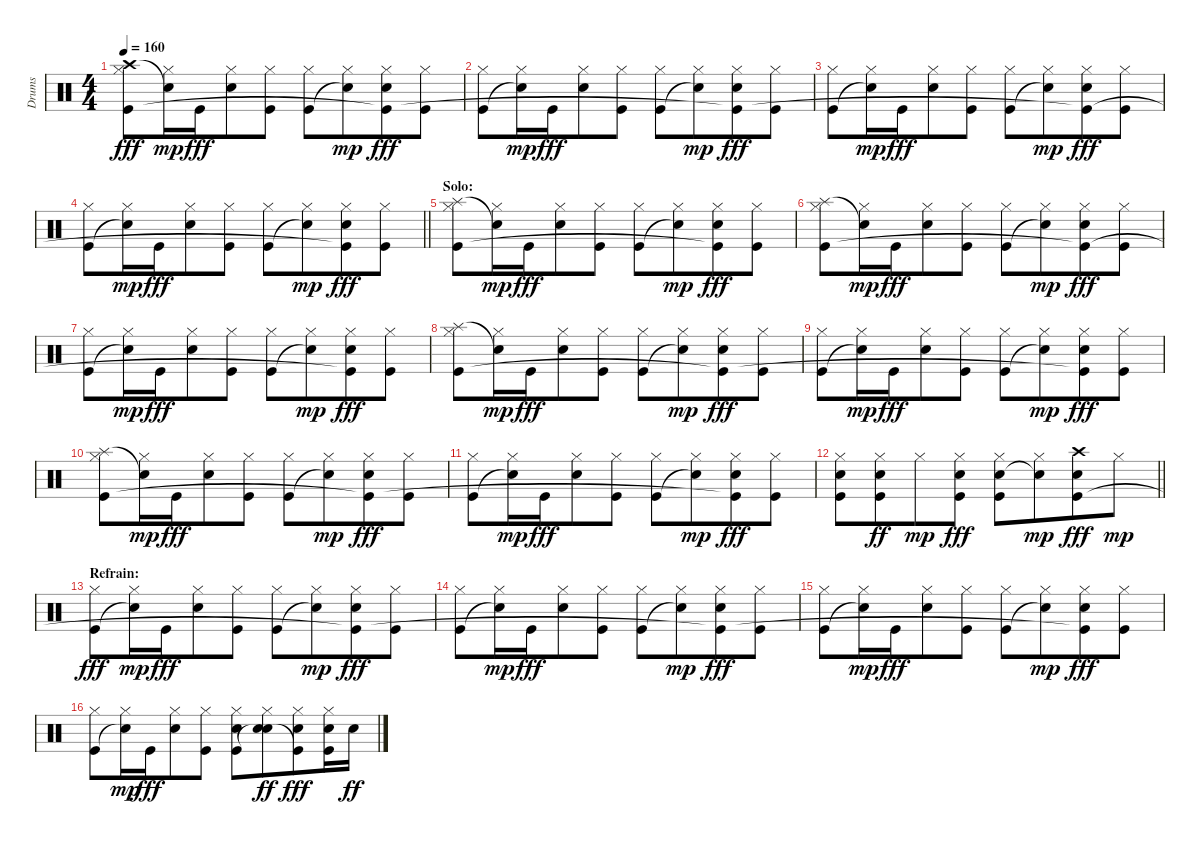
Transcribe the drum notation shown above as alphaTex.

\track ("Drums" "Drums") {instrument percussion}
\staff {score}
\articulation defaults
\ts (4 4)
\tempo 160
\clef neutral
\ks c
("Hi-Hat (closed)" "Crash high (hit)" "Kick (hit)").8{dy fff} ("Hi-Hat (closed)" "Snare (hit)"{t}).16{dy mp} "Kick (hit)".16{dy fff beam merge} ("Hi-Hat (closed)" "Snare (hit) 2").8 ("Hi-Hat (closed)" "Kick (hit)").8 ("Hi-Hat (closed)" "Kick (hit)").8 ("Hi-Hat (closed)" "Snare (hit)"{t}).8{dy mp beam merge} ("Hi-Hat (closed)" "Snare (hit) 2" "Kick (hit)"{t}).8{dy fff} ("Hi-Hat (closed)" "Kick (hit)").8 |
("Hi-Hat (closed)" "Kick (hit)").8 ("Hi-Hat (closed)" "Snare (hit)"{t}).16{dy mp} "Kick (hit)".16{dy fff beam merge} ("Hi-Hat (closed)" "Snare (hit) 2").8 ("Hi-Hat (closed)" "Kick (hit)").8 ("Hi-Hat (closed)" "Kick (hit)").8 ("Hi-Hat (closed)" "Snare (hit)"{t}).8{dy mp beam merge} ("Hi-Hat (closed)" "Snare (hit) 2" "Kick (hit)"{t}).8{dy fff} ("Hi-Hat (closed)" "Kick (hit)").8 |
("Hi-Hat (closed)" "Kick (hit)").8 ("Hi-Hat (closed)" "Snare (hit)"{t}).16{dy mp} "Kick (hit)".16{dy fff beam merge} ("Hi-Hat (closed)" "Snare (hit) 2").8 ("Hi-Hat (closed)" "Kick (hit)").8 ("Hi-Hat (closed)" "Kick (hit)").8 ("Hi-Hat (closed)" "Snare (hit)"{t}).8{dy mp beam merge} ("Hi-Hat (closed)" "Snare (hit) 2" "Kick (hit)"{t}).8{dy fff} ("Hi-Hat (closed)" "Kick (hit)").8 |
\barLineRight lightlight
("Hi-Hat (closed)" "Kick (hit)").8 ("Hi-Hat (closed)" "Snare (hit)"{t}).16{dy mp} "Kick (hit)".16{dy fff beam merge} ("Hi-Hat (closed)" "Snare (hit) 2").8 ("Hi-Hat (closed)" "Kick (hit)").8 ("Hi-Hat (closed)" "Kick (hit)").8 ("Hi-Hat (closed)" "Snare (hit)"{t}).8{dy mp beam merge} ("Hi-Hat (closed)" "Snare (hit) 2" "Kick (hit)"{t}).8{dy fff} ("Hi-Hat (closed)" "Kick (hit)").8 |
\section ("" "Solo:")
("Hi-Hat (closed)" "Splash (hit)" "Kick (hit)").8 ("Hi-Hat (closed)" "Snare (hit)"{t}).16{dy mp} "Kick (hit)".16{dy fff beam merge} ("Hi-Hat (closed)" "Snare (hit) 2").8 ("Hi-Hat (closed)" "Kick (hit)").8 ("Hi-Hat (closed)" "Kick (hit)").8 ("Hi-Hat (closed)" "Snare (hit)"{t}).8{dy mp beam merge} ("Hi-Hat (closed)" "Snare (hit) 2" "Kick (hit)"{t}).8{dy fff} ("Hi-Hat (closed)" "Kick (hit)").8 |
("Hi-Hat (closed)" "Splash (hit)" "Kick (hit)").8 ("Hi-Hat (closed)" "Snare (hit)"{t}).16{dy mp} "Kick (hit)".16{dy fff beam merge} ("Hi-Hat (closed)" "Snare (hit) 2").8 ("Hi-Hat (closed)" "Kick (hit)").8 ("Hi-Hat (closed)" "Kick (hit)").8 ("Hi-Hat (closed)" "Snare (hit)"{t}).8{dy mp beam merge} ("Hi-Hat (closed)" "Snare (hit) 2" "Kick (hit)"{t}).8{dy fff} ("Hi-Hat (closed)" "Kick (hit)").8 |
("Hi-Hat (closed)" "Kick (hit)").8 ("Hi-Hat (closed)" "Snare (hit)"{t}).16{dy mp} "Kick (hit)".16{dy fff beam merge} ("Hi-Hat (closed)" "Snare (hit) 2").8 ("Hi-Hat (closed)" "Kick (hit)").8 ("Hi-Hat (closed)" "Kick (hit)").8 ("Hi-Hat (closed)" "Snare (hit)"{t}).8{dy mp beam merge} ("Hi-Hat (closed)" "Snare (hit) 2" "Kick (hit)"{t}).8{dy fff} ("Hi-Hat (closed)" "Kick (hit)").8 |
("Hi-Hat (closed)" "Splash (hit)" "Kick (hit)").8 ("Hi-Hat (closed)" "Snare (hit)"{t}).16{dy mp} "Kick (hit)".16{dy fff beam merge} ("Hi-Hat (closed)" "Snare (hit) 2").8 ("Hi-Hat (closed)" "Kick (hit)").8 ("Hi-Hat (closed)" "Kick (hit)").8 ("Hi-Hat (closed)" "Snare (hit)"{t}).8{dy mp beam merge} ("Hi-Hat (closed)" "Snare (hit) 2" "Kick (hit)"{t}).8{dy fff} ("Hi-Hat (closed)" "Kick (hit)").8 |
("Hi-Hat (closed)" "Kick (hit)").8 ("Hi-Hat (closed)" "Snare (hit)"{t}).16{dy mp} "Kick (hit)".16{dy fff beam merge} ("Hi-Hat (closed)" "Snare (hit) 2").8 ("Hi-Hat (closed)" "Kick (hit)").8 ("Hi-Hat (closed)" "Kick (hit)").8 ("Hi-Hat (closed)" "Snare (hit)"{t}).8{dy mp beam merge} ("Hi-Hat (closed)" "Snare (hit) 2" "Kick (hit)"{t}).8{dy fff} ("Hi-Hat (closed)" "Kick (hit)").8 |
("Hi-Hat (closed)" "Splash (hit)" "Kick (hit)").8 ("Hi-Hat (closed)" "Snare (hit)"{t}).16{dy mp} "Kick (hit)".16{dy fff beam merge} ("Hi-Hat (closed)" "Snare (hit) 2").8 ("Hi-Hat (closed)" "Kick (hit)").8 ("Hi-Hat (closed)" "Kick (hit)").8 ("Hi-Hat (closed)" "Snare (hit)"{t}).8{dy mp beam merge} ("Hi-Hat (closed)" "Snare (hit) 2" "Kick (hit)"{t}).8{dy fff} ("Hi-Hat (closed)" "Kick (hit)").8 |
("Hi-Hat (closed)" "Kick (hit)").8 ("Hi-Hat (closed)" "Snare (hit)"{t}).16{dy mp} "Kick (hit)".16{dy fff beam merge} ("Hi-Hat (closed)" "Snare (hit) 2").8 ("Hi-Hat (closed)" "Kick (hit)").8 ("Hi-Hat (closed)" "Kick (hit)").8 ("Hi-Hat (closed)" "Snare (hit)"{t}).8{dy mp beam merge} ("Hi-Hat (closed)" "Snare (hit) 2" "Kick (hit)"{t}).8{dy fff} ("Hi-Hat (closed)" "Kick (hit)").8 |
\barLineRight lightlight
("Hi-Hat (closed)" "Snare (hit) 2" "Kick (hit)").8 ("Hi-Hat (closed)" "Snare (hit) 2" "Kick (hit)").8{dy ff beam merge} "Hi-Hat (closed)".8{dy mp} ("Hi-Hat (closed)" "Snare (hit) 2" "Kick (hit)").8{dy fff} ("Hi-Hat (closed)" "Snare (hit) 2" "Kick (hit)").8 ("Hi-Hat (closed)" "Snare (hit)"{t}).8{dy mp beam merge} ("Crash high (hit)" "Snare (hit) 2" "Kick (hit)").8{dy fff} "Hi-Hat (closed)".8{dy mp} |
\section ("" "Refrain:")
("Hi-Hat (closed)" "Kick (hit)").8{dy fff} ("Hi-Hat (closed)" "Snare (hit)"{t}).16{dy mp} "Kick (hit)".16{dy fff beam merge} ("Hi-Hat (closed)" "Snare (hit) 2").8 ("Hi-Hat (closed)" "Kick (hit)").8 ("Hi-Hat (closed)" "Kick (hit)").8 ("Hi-Hat (closed)" "Snare (hit)"{t}).8{dy mp beam merge} ("Hi-Hat (closed)" "Snare (hit) 2" "Kick (hit)"{t}).8{dy fff} ("Hi-Hat (closed)" "Kick (hit)").8 |
("Hi-Hat (closed)" "Kick (hit)").8 ("Hi-Hat (closed)" "Snare (hit)"{t}).16{dy mp} "Kick (hit)".16{dy fff beam merge} ("Hi-Hat (closed)" "Snare (hit) 2").8 ("Hi-Hat (closed)" "Kick (hit)").8 ("Hi-Hat (closed)" "Kick (hit)").8 ("Hi-Hat (closed)" "Snare (hit)"{t}).8{dy mp beam merge} ("Hi-Hat (closed)" "Snare (hit) 2" "Kick (hit)"{t}).8{dy fff} ("Hi-Hat (closed)" "Kick (hit)").8 |
("Hi-Hat (closed)" "Kick (hit)").8 ("Hi-Hat (closed)" "Snare (hit)"{t}).16{dy mp} "Kick (hit)".16{dy fff beam merge} ("Hi-Hat (closed)" "Snare (hit) 2").8 ("Hi-Hat (closed)" "Kick (hit)").8 ("Hi-Hat (closed)" "Kick (hit)").8 ("Hi-Hat (closed)" "Snare (hit)"{t}).8{dy mp beam merge} ("Hi-Hat (closed)" "Snare (hit) 2" "Kick (hit)"{t}).8{dy fff} ("Hi-Hat (closed)" "Kick (hit)").8 |
("Hi-Hat (closed)" "Kick (hit)").8 ("Hi-Hat (closed)" "Snare (hit)"{t}).16{dy mp} "Kick (hit)".16{dy fff beam merge} ("Hi-Hat (closed)" "Snare (hit) 2").8 ("Hi-Hat (closed)" "Kick (hit)").8 ("Hi-Hat (closed)" "Snare (hit) 2" "Kick (hit)").8 ("Hi-Hat (closed)" "Snare (hit) 2" "Snare (hit)"{t}).8{dy ff beam merge} ("Hi-Hat (closed)" "Snare (hit) 2" "Kick (hit)"{t}).8{dy fff} ("Hi-Hat (closed)" "Snare (hit) 2" "Kick (hit)").16 "Snare (hit) 2".16{dy ff}
